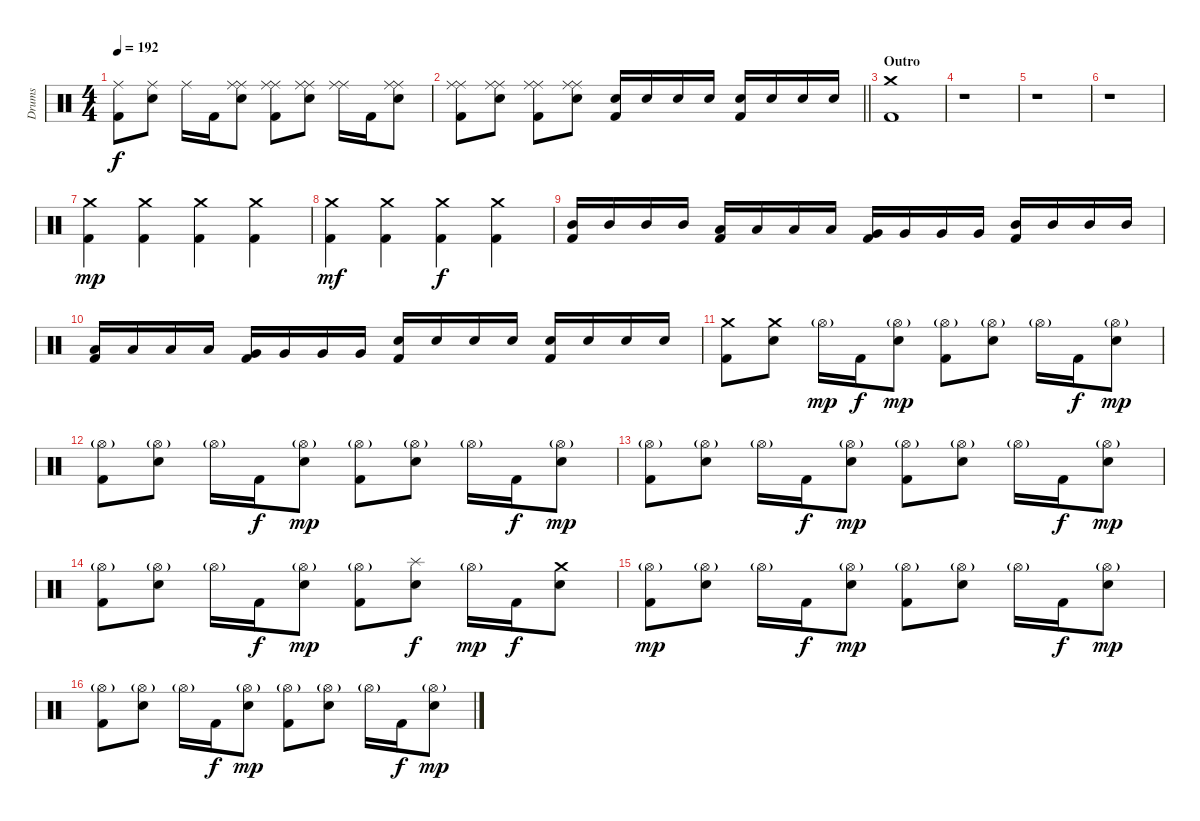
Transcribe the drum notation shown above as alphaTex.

\track ("Drums" "Drums") {instrument percussion}
\staff {score}
\articulation defaults
\ts (4 4)
\tempo 192
\clef neutral
\ks c
("Ride (middle)" "Kick (hit) 2").8{dy f} ("Ride (middle)" "Electric Snare (hit)").8 "Ride (middle)".16 "Kick (hit) 2".16 ("Ride (middle)" "Ride (middle)" "Electric Snare (hit)").8 ("Ride (middle)" "Ride (middle)" "Kick (hit) 2").8 ("Ride (middle)" "Ride (middle)" "Electric Snare (hit)").8 ("Ride (middle)" "Ride (middle)").16 "Kick (hit) 2".16 ("Ride (middle)" "Ride (middle)" "Electric Snare (hit)").8 |
\barLineRight lightlight
("Ride (middle)" "Ride (middle)" "Kick (hit) 2").8 ("Ride (middle)" "Ride (middle)" "Electric Snare (hit)").8 ("Ride (middle)" "Ride (middle)" "Kick (hit) 2").8 ("Ride (middle)" "Ride (middle)" "Electric Snare (hit)").8 ("Electric Snare (hit)" "Kick (hit) 2").16 "Electric Snare (hit)".16 "Electric Snare (hit)".16 "Electric Snare (hit)".16 ("Electric Snare (hit)" "Kick (hit) 2").16 "Electric Snare (hit)".16 "Electric Snare (hit)".16 "Electric Snare (hit)".16 |
\section ("" "Outro")
("Crash medium (hit)" "Kick (hit) 2").1 |
r.1 |
r.1 |
r.1 |
("Crash medium (hit)" "Kick (hit) 2").4{dy mp} ("Crash medium (hit)" "Kick (hit) 2").4 ("Crash medium (hit)" "Kick (hit) 2").4 ("Crash medium (hit)" "Kick (hit) 2").4 |
("Crash medium (hit)" "Kick (hit) 2").4{dy mf} ("Crash medium (hit)" "Kick (hit) 2").4 ("Crash medium (hit)" "Kick (hit) 2").4{dy f} ("Crash medium (hit)" "Kick (hit) 2").4 |
("Mid Tom (hit)" "Kick (hit) 2").16 "Mid Tom (hit)".16 "Mid Tom (hit)".16 "Mid Tom (hit)".16 ("Low Tom (hit)" "Kick (hit) 2").16 "Low Tom (hit)".16 "Low Tom (hit)".16 "Low Tom (hit)".16 ("Very Low Tom (hit)" "Kick (hit) 2").16 "Very Low Tom (hit)".16 "Very Low Tom (hit)".16 "Very Low Tom (hit)".16 ("Mid Tom (hit)" "Kick (hit) 2").16 "Mid Tom (hit)".16 "Mid Tom (hit)".16 "Mid Tom (hit)".16 |
("Low Tom (hit)" "Kick (hit) 2").16 "Low Tom (hit)".16 "Low Tom (hit)".16 "Low Tom (hit)".16 ("Very Low Tom (hit)" "Kick (hit) 2").16 "Very Low Tom (hit)".16 "Very Low Tom (hit)".16 "Very Low Tom (hit)".16 ("Electric Snare (hit)" "Kick (hit) 2").16 "Electric Snare (hit)".16 "Electric Snare (hit)".16 "Electric Snare (hit)".16 ("Electric Snare (hit)" "Kick (hit) 2").16 "Electric Snare (hit)".16 "Electric Snare (hit)".16 "Electric Snare (hit)".16 |
("Crash medium (hit)" "Kick (hit) 2").8 ("Crash medium (hit)" "Electric Snare (hit)").8 "Hi-Hat (open)"{g}.16{dy mp} "Kick (hit) 2".16{dy f} ("Hi-Hat (open)"{g} "Electric Snare (hit)").8{dy mp} ("Hi-Hat (open)"{g} "Kick (hit) 2").8 ("Hi-Hat (open)"{g} "Electric Snare (hit)").8 "Hi-Hat (open)"{g}.16 "Kick (hit) 2".16{dy f} ("Hi-Hat (open)"{g} "Electric Snare (hit)").8{dy mp} |
("Hi-Hat (open)"{g} "Kick (hit) 2").8 ("Hi-Hat (open)"{g} "Electric Snare (hit)").8 "Hi-Hat (open)"{g}.16 "Kick (hit) 2".16{dy f} ("Hi-Hat (open)"{g} "Electric Snare (hit)").8{dy mp} ("Hi-Hat (open)"{g} "Kick (hit) 2").8 ("Hi-Hat (open)"{g} "Electric Snare (hit)").8 "Hi-Hat (open)"{g}.16 "Kick (hit) 2".16{dy f} ("Hi-Hat (open)"{g} "Electric Snare (hit)").8{dy mp} |
("Hi-Hat (open)"{g} "Kick (hit) 2").8 ("Hi-Hat (open)"{g} "Electric Snare (hit)").8 "Hi-Hat (open)"{g}.16 "Kick (hit) 2".16{dy f} ("Hi-Hat (open)"{g} "Electric Snare (hit)").8{dy mp} ("Hi-Hat (open)"{g} "Kick (hit) 2").8 ("Hi-Hat (open)"{g} "Electric Snare (hit)").8 "Hi-Hat (open)"{g}.16 "Kick (hit) 2".16{dy f} ("Hi-Hat (open)"{g} "Electric Snare (hit)").8{dy mp} |
("Hi-Hat (open)"{g} "Kick (hit) 2").8 ("Hi-Hat (open)"{g} "Electric Snare (hit)").8 "Hi-Hat (open)"{g}.16 "Kick (hit) 2".16{dy f} ("Hi-Hat (open)"{g} "Electric Snare (hit)").8{dy mp} ("Hi-Hat (open)"{g} "Kick (hit) 2").8 ("Splash (hit)" "Electric Snare (hit)").8{dy f} "Hi-Hat (open)"{g}.16{dy mp} "Kick (hit) 2".16{dy f} ("Crash medium (hit)" "Electric Snare (hit)").8 |
("Hi-Hat (open)"{g} "Kick (hit) 2").8{dy mp} ("Hi-Hat (open)"{g} "Electric Snare (hit)").8 "Hi-Hat (open)"{g}.16 "Kick (hit) 2".16{dy f} ("Hi-Hat (open)"{g} "Electric Snare (hit)").8{dy mp} ("Hi-Hat (open)"{g} "Kick (hit) 2").8 ("Hi-Hat (open)"{g} "Electric Snare (hit)").8 "Hi-Hat (open)"{g}.16 "Kick (hit) 2".16{dy f} ("Hi-Hat (open)"{g} "Electric Snare (hit)").8{dy mp} |
("Hi-Hat (open)"{g} "Kick (hit) 2").8 ("Hi-Hat (open)"{g} "Electric Snare (hit)").8 "Hi-Hat (open)"{g}.16 "Kick (hit) 2".16{dy f} ("Hi-Hat (open)"{g} "Electric Snare (hit)").8{dy mp} ("Hi-Hat (open)"{g} "Kick (hit) 2").8 ("Hi-Hat (open)"{g} "Electric Snare (hit)").8 "Hi-Hat (open)"{g}.16 "Kick (hit) 2".16{dy f} ("Hi-Hat (open)"{g} "Electric Snare (hit)").8{dy mp}
